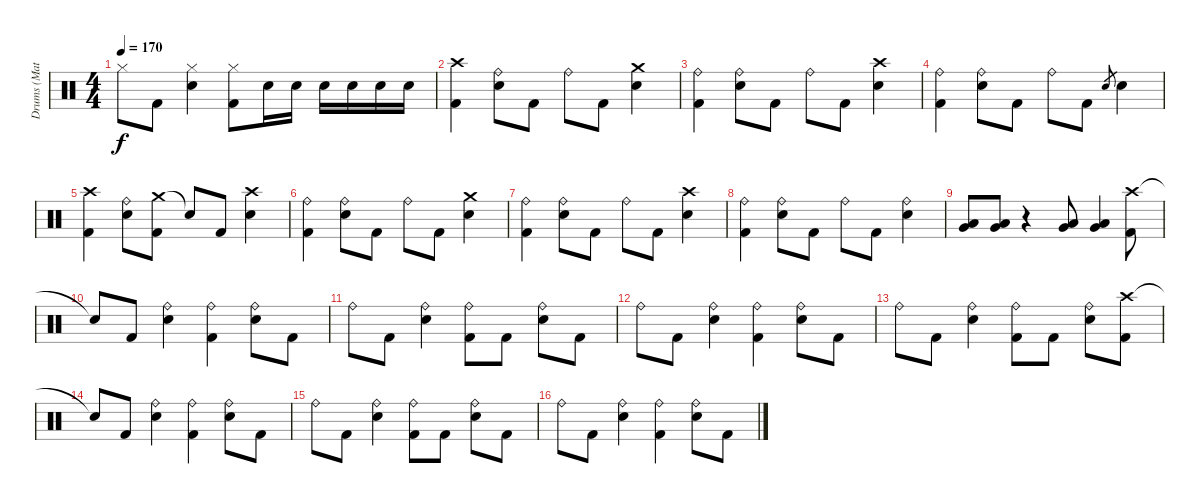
\track ("Drums (Matt)" "Drums (Mat") {instrument percussion}
\staff {score}
\articulation defaults
\ts (4 4)
\tempo 170
\clef neutral
\ks c "Hi-Hat (closed)".8{dy f} "Kick (hit) 2".8
("Hi-Hat (closed)" "Snare (hit) 2").4 ("Hi-Hat (closed)" "Kick (hit) 2").8 "Snare (hit) 2".16 "Snare (hit) 2".16 "Snare (hit) 2".16 "Snare (hit) 2".16 "Snare (hit) 2".16 "Snare (hit) 2".16 |
("Crash high (hit)" "Kick (hit) 2").4 ("Ride (bell)" "Snare (hit) 2").8 "Kick (hit) 2".8 "Ride (bell)".8 "Kick (hit) 2".8 ("Crash medium (hit)" "Snare (hit) 2").4 |
("Ride (bell)" "Kick (hit) 2").4 ("Ride (bell)" "Snare (hit) 2").8 "Kick (hit) 2".8 "Ride (bell)".8 "Kick (hit) 2".8 ("Crash high (hit)" "Snare (hit) 2").4 |
("Ride (bell)" "Kick (hit) 2").4 ("Ride (bell)" "Snare (hit) 2").8 "Kick (hit) 2".8 "Ride (bell)".8 "Kick (hit) 2".8 "Snare (hit) 2".8{gr} "Snare (hit) 2".4 |
("Crash high (hit)" "Kick (hit) 2").4 ("Ride (bell)" "Snare (hit) 2").8 ("Crash medium (hit)" "Kick (hit) 2").8 "Snare (hit)"{t}.8 "Kick (hit) 2".8 ("Crash high (hit)" "Snare (hit) 2").4 |
("Ride (bell)" "Kick (hit) 2").4 ("Ride (bell)" "Snare (hit) 2").8 "Kick (hit) 2".8 "Ride (bell)".8 "Kick (hit) 2".8 ("Crash medium (hit)" "Snare (hit) 2").4 |
("Ride (bell)" "Kick (hit) 2").4 ("Ride (bell)" "Snare (hit) 2").8 "Kick (hit) 2".8 "Ride (bell)".8 "Kick (hit) 2".8 ("Crash high (hit)" "Snare (hit) 2").4 |
("Ride (bell)" "Kick (hit) 2").4 ("Ride (bell)" "Snare (hit) 2").8 "Kick (hit) 2".8 "Ride (bell)".8 "Kick (hit) 2".8 ("Ride (bell)" "Snare (hit) 2").4 |
("Low Tom (hit)" "Very Low Tom (hit)").8 ("Low Tom (hit)" "Very Low Tom (hit)").8 r.4 ("Low Tom (hit)" "Very Low Tom (hit)").8 ("Low Tom (hit)" "Very Low Tom (hit)").4 ("Crash high (hit)" "Kick (hit) 2").8 |
"Snare (hit)"{t}.8 "Kick (hit) 2".8 ("Ride (bell)" "Snare (hit) 2").4 ("Ride (bell)" "Kick (hit) 2").4 ("Ride (bell)" "Snare (hit) 2").8 "Kick (hit) 2".8 |
"Ride (bell)".8 "Kick (hit) 2".8 ("Ride (bell)" "Snare (hit) 2").4 ("Ride (bell)" "Kick (hit) 2").8 "Kick (hit) 2".8 ("Ride (bell)" "Snare (hit) 2").8 "Kick (hit) 2".8 |
"Ride (bell)".8 "Kick (hit) 2".8 ("Ride (bell)" "Snare (hit) 2").4 ("Ride (bell)" "Kick (hit) 2").4 ("Ride (bell)" "Snare (hit) 2").8 "Kick (hit) 2".8 |
"Ride (bell)".8 "Kick (hit) 2".8 ("Ride (bell)" "Snare (hit) 2").4 ("Ride (bell)" "Kick (hit) 2").8 "Kick (hit) 2".8 ("Ride (bell)" "Snare (hit) 2").8 ("Crash high (hit)" "Kick (hit) 2").8 |
"Snare (hit)"{t}.8 "Kick (hit) 2".8 ("Ride (bell)" "Snare (hit) 2").4 ("Ride (bell)" "Kick (hit) 2").4 ("Ride (bell)" "Snare (hit) 2").8 "Kick (hit) 2".8 |
"Ride (bell)".8 "Kick (hit) 2".8 ("Ride (bell)" "Snare (hit) 2").4 ("Ride (bell)" "Kick (hit) 2").8 "Kick (hit) 2".8 ("Ride (bell)" "Snare (hit) 2").8 "Kick (hit) 2".8 |
"Ride (bell)".8 "Kick (hit) 2".8 ("Ride (bell)" "Snare (hit) 2").4 ("Ride (bell)" "Kick (hit) 2").4 ("Ride (bell)" "Snare (hit) 2").8 "Kick (hit) 2".8
